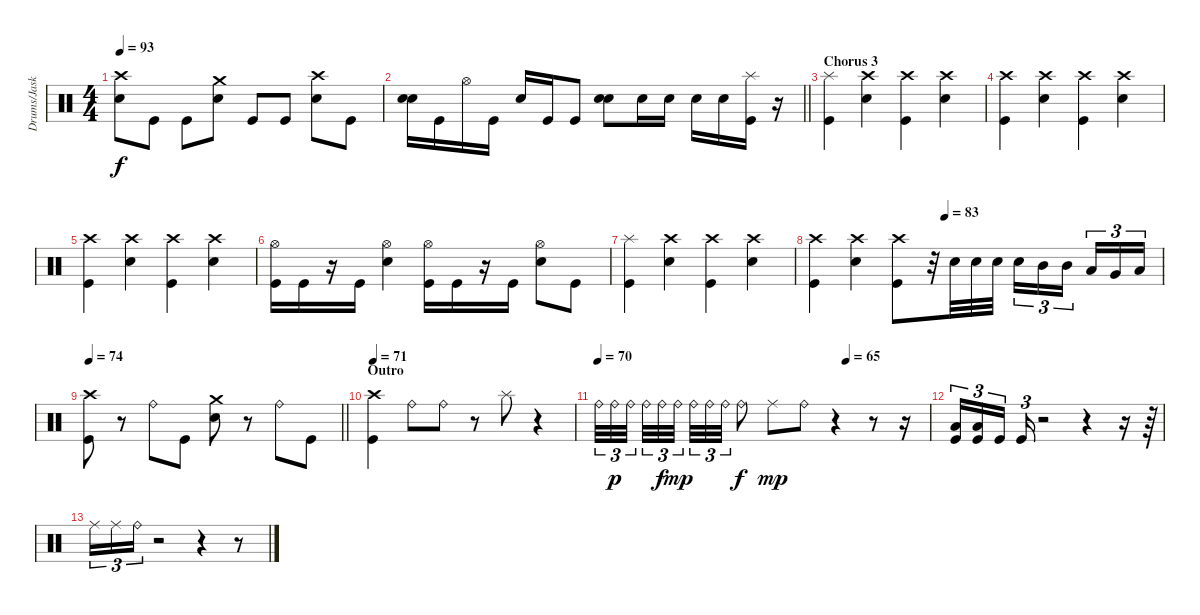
\track ("Drums/Jaska" "Drums/Jask") {instrument percussion}
\staff {score}
\articulation defaults
\ts (4 4)
\tempo 93
\clef neutral
\ks c
("Crash high (hit)" "Electric Snare (hit)").8{dy f} "Kick (hit)".8 "Kick (hit)".8 ("Crash medium (hit)" "Electric Snare (hit)").8 "Kick (hit)".8 "Kick (hit)".8 ("Crash high (hit)" "Electric Snare (hit)").8 "Kick (hit)".8 |
\barLineRight lightlight
("Snare (hit) 2" "Electric Snare (hit)").16 "Kick (hit)".16 "Hi-Hat (open)".16 "Kick (hit)".16 "Electric Snare (hit)".16 "Kick (hit)".16 "Kick (hit)".8 ("Snare (hit) 2" "Electric Snare (hit)").8 "Electric Snare (hit)".16 "Electric Snare (hit)".16 "Electric Snare (hit)".16 "Electric Snare (hit)".16 ("Splash (hit)" "Kick (hit)").16 r.16 |
\section ("" "Chorus 3")
("Splash (hit)" "Kick (hit)").4 ("Crash high (hit)" "Electric Snare (hit)").4 ("Crash high (hit)" "Kick (hit)").4 ("Crash high (hit)" "Electric Snare (hit)").4 |
("Crash high (hit)" "Kick (hit)").4 ("Crash high (hit)" "Electric Snare (hit)").4 ("Crash high (hit)" "Kick (hit)").4 ("Crash high (hit)" "Electric Snare (hit)").4 |
("Crash high (hit)" "Kick (hit)").4 ("Crash high (hit)" "Electric Snare (hit)").4 ("Crash high (hit)" "Kick (hit)").4 ("Crash high (hit)" "Electric Snare (hit)").4 |
("Hi-Hat (open)" "Kick (hit)").16 "Kick (hit)".16 r.16 "Kick (hit)".16 ("Hi-Hat (open)" "Electric Snare (hit)").4 ("Hi-Hat (open)" "Kick (hit)").16 "Kick (hit)".16 r.16 "Kick (hit)".16 ("Hi-Hat (open)" "Electric Snare (hit)").8 "Kick (hit)".8 |
("Splash (hit)" "Kick (hit)").4 ("Crash high (hit)" "Electric Snare (hit)").4 ("Crash high (hit)" "Kick (hit)").4 ("Crash high (hit)" "Electric Snare (hit)").4 |
\tempo (83 0.375)
("Crash high (hit)" "Kick (hit)").4 ("Crash high (hit)" "Electric Snare (hit)").4 ("Crash high (hit)" "Kick (hit)").8 r.32 "Electric Snare (hit)".32 "Electric Snare (hit)".32 "Electric Snare (hit)".32 "Electric Snare (hit)".16{tu (3 2)} "Mid Tom (hit)".16{tu (3 2)} "Mid Tom (hit)".16{tu (3 2) beam splitsecondary} "Low Tom (hit)".16{tu (3 2)} "Very Low Tom (hit)".16{tu (3 2)} "Low Floor Tom (hit)".16{tu (3 2)} |
\tempo 74
\barLineRight lightlight
("Crash high (hit)" "Kick (hit)").8 r.8 "Ride (bell)".8 "Kick (hit)".8 ("Crash medium (hit)" "Electric Snare (hit)").8 r.8 "Ride (bell)".8 "Kick (hit)".8 |
\section ("" "Outro")
\tempo 71
("Crash high (hit)" "Kick (hit)").4 "Ride (bell)".8 "Ride (bell)".8 r.8 "Splash (hit)".8 r.4 |
\tempo 70
\tempo (65 0.75)
"Ride (bell)".32{tu (3 2)} "Ride (bell)".32{tu (3 2) dy p} "Ride (bell)".32{tu (3 2) beam splitsecondary} "Ride (bell)".32{tu (3 2)} "Ride (bell)".32{tu (3 2) dy f} "Ride (bell)".32{tu (3 2) dy mp beam splitsecondary} "Ride (bell)".32{tu (3 2)} "Ride (bell)".32{tu (3 2)} "Ride (bell)".32{tu (3 2)} "Ride (bell)".8{dy f} "Ride (middle)".8{dy mp} "Ride (bell)".8 r.4 r.8 r.16 |
("Low Floor Tom (hit)" "Kick (hit)").16{tu (3 2)} ("Low Floor Tom (hit)" "Kick (hit)").16{tu (3 2)} "Kick (hit)".16{tu (3 2) beam splitsecondary} "Kick (hit)".16{tu (3 2)} r.2 r.4 r.16 r.64 |
"Ride (middle)".16{tu (3 2)} "Ride (middle)".16{tu (3 2)} "Ride (bell)".16{tu (3 2)} r.2 r.4 r.8
